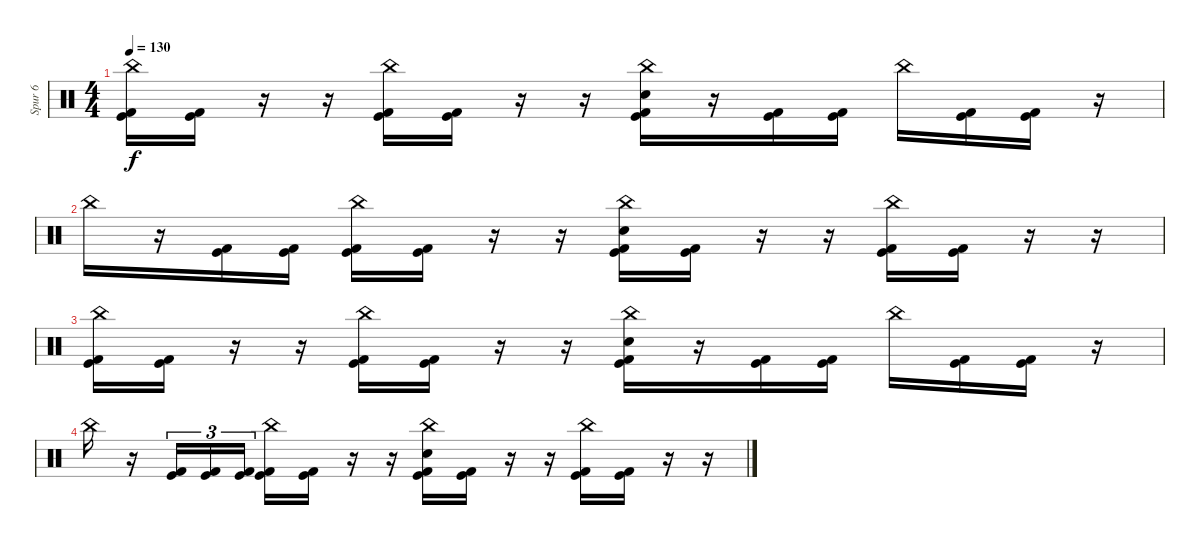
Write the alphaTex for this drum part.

\track ("Spur 6" "Spur 6") {instrument percussion}
\staff {score}
\articulation defaults
\ts (4 4)
\tempo 130
\clef neutral
\ks c
("China (hit)" "Kick (hit)" "Kick (hit) 2").16{dy f} ("Kick (hit)" "Kick (hit) 2").16 r.16 r.16 ("China (hit)" "Kick (hit)" "Kick (hit) 2").16 ("Kick (hit)" "Kick (hit) 2").16 r.16 r.16 ("China (hit)" "Electric Snare (hit)" "Kick (hit)" "Kick (hit) 2").16 r.16 ("Kick (hit)" "Kick (hit) 2").16 ("Kick (hit)" "Kick (hit) 2").16 "China (hit)".16 ("Kick (hit)" "Kick (hit) 2").16 ("Kick (hit)" "Kick (hit) 2").16 r.16 |
"China (hit)".16 r.16 ("Kick (hit)" "Kick (hit) 2").16 ("Kick (hit)" "Kick (hit) 2").16 ("China (hit)" "Kick (hit)" "Kick (hit) 2").16 ("Kick (hit)" "Kick (hit) 2").16 r.16 r.16 ("China (hit)" "Electric Snare (hit)" "Kick (hit)" "Kick (hit) 2").16 ("Kick (hit)" "Kick (hit) 2").16 r.16 r.16 ("China (hit)" "Kick (hit)" "Kick (hit) 2").16 ("Kick (hit)" "Kick (hit) 2").16 r.16 r.16 |
("China (hit)" "Kick (hit)" "Kick (hit) 2").16 ("Kick (hit)" "Kick (hit) 2").16 r.16 r.16 ("China (hit)" "Kick (hit)" "Kick (hit) 2").16 ("Kick (hit)" "Kick (hit) 2").16 r.16 r.16 ("China (hit)" "Electric Snare (hit)" "Kick (hit)" "Kick (hit) 2").16 r.16 ("Kick (hit)" "Kick (hit) 2").16 ("Kick (hit)" "Kick (hit) 2").16 "China (hit)".16 ("Kick (hit)" "Kick (hit) 2").16 ("Kick (hit)" "Kick (hit) 2").16 r.16 |
"China (hit)".16 r.16 ("Kick (hit)" "Kick (hit) 2").16{tu (3 2)} ("Kick (hit)" "Kick (hit) 2").16{tu (3 2)} ("Kick (hit)" "Kick (hit) 2").16{tu (3 2)} ("China (hit)" "Kick (hit)" "Kick (hit) 2").16 ("Kick (hit)" "Kick (hit) 2").16 r.16 r.16 ("China (hit)" "Electric Snare (hit)" "Kick (hit)" "Kick (hit) 2").16 ("Kick (hit)" "Kick (hit) 2").16 r.16 r.16 ("China (hit)" "Kick (hit)" "Kick (hit) 2").16 ("Kick (hit)" "Kick (hit) 2").16 r.16 r.16
